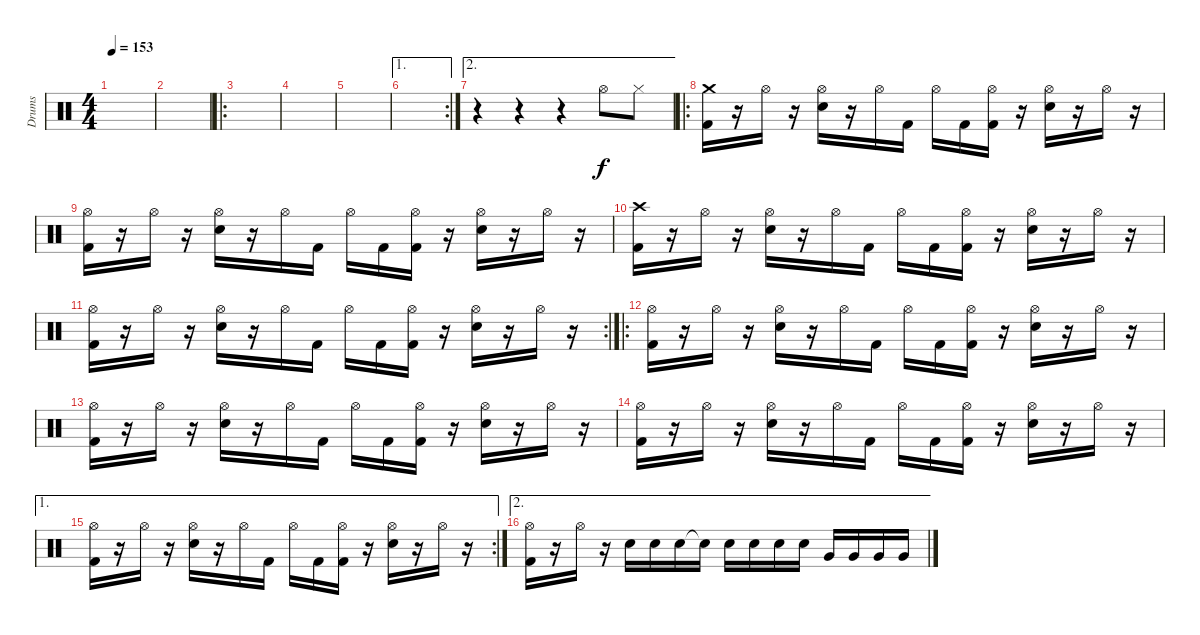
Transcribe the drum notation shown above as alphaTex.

\track ("Drums" "Drums") {instrument percussion}
\staff {score}
\articulation defaults
\ts (4 4)
\tempo 153
\clef neutral
\ks c
|
|
\ro
|
|
|
\ae 1
\rc 2
|
\ae 2
r.4 r.4 r.4 "Hi-Hat (open)".8 "Hi-Hat (closed)".8 |
\ro
("Crash medium (hit)" "Kick (hit) 2").16 r.16 "Hi-Hat (open)".16 r.16 ("Hi-Hat (open)" "Snare (hit) 2").16 r.16 "Hi-Hat (open)".16 "Kick (hit) 2".16 "Hi-Hat (open)".16 "Kick (hit) 2".16 ("Hi-Hat (open)" "Kick (hit) 2").16 r.16 ("Hi-Hat (open)" "Snare (hit) 2").16 r.16 "Hi-Hat (open)".16 r.16 |
("Hi-Hat (open)" "Kick (hit) 2").16 r.16 "Hi-Hat (open)".16 r.16 ("Hi-Hat (open)" "Snare (hit) 2").16 r.16 "Hi-Hat (open)".16 "Kick (hit) 2".16 "Hi-Hat (open)".16 "Kick (hit) 2".16 ("Hi-Hat (open)" "Kick (hit) 2").16 r.16 ("Hi-Hat (open)" "Snare (hit) 2").16 r.16 "Hi-Hat (open)".16 r.16 |
("Crash high (hit)" "Kick (hit) 2").16 r.16 "Hi-Hat (open)".16 r.16 ("Hi-Hat (open)" "Snare (hit) 2").16 r.16 "Hi-Hat (open)".16 "Kick (hit) 2".16 "Hi-Hat (open)".16 "Kick (hit) 2".16 ("Hi-Hat (open)" "Kick (hit) 2").16 r.16 ("Hi-Hat (open)" "Snare (hit) 2").16 r.16 "Hi-Hat (open)".16 r.16 |
\rc 2
("Hi-Hat (open)" "Kick (hit) 2").16 r.16 "Hi-Hat (open)".16 r.16 ("Hi-Hat (open)" "Snare (hit) 2").16 r.16 "Hi-Hat (open)".16 "Kick (hit) 2".16 "Hi-Hat (open)".16 "Kick (hit) 2".16 ("Hi-Hat (open)" "Kick (hit) 2").16 r.16 ("Hi-Hat (open)" "Snare (hit) 2").16 r.16 "Hi-Hat (open)".16 r.16 |
\ro
("Hi-Hat (open)" "Kick (hit) 2").16 r.16 "Hi-Hat (open)".16 r.16 ("Hi-Hat (open)" "Snare (hit) 2").16 r.16 "Hi-Hat (open)".16 "Kick (hit) 2".16 "Hi-Hat (open)".16 "Kick (hit) 2".16 ("Hi-Hat (open)" "Kick (hit) 2").16 r.16 ("Hi-Hat (open)" "Snare (hit) 2").16 r.16 "Hi-Hat (open)".16 r.16 |
("Hi-Hat (open)" "Kick (hit) 2").16 r.16 "Hi-Hat (open)".16 r.16 ("Hi-Hat (open)" "Snare (hit) 2").16 r.16 "Hi-Hat (open)".16 "Kick (hit) 2".16 "Hi-Hat (open)".16 "Kick (hit) 2".16 ("Hi-Hat (open)" "Kick (hit) 2").16 r.16 ("Hi-Hat (open)" "Snare (hit) 2").16 r.16 "Hi-Hat (open)".16 r.16 |
("Hi-Hat (open)" "Kick (hit) 2").16 r.16 "Hi-Hat (open)".16 r.16 ("Hi-Hat (open)" "Snare (hit) 2").16 r.16 "Hi-Hat (open)".16 "Kick (hit) 2".16 "Hi-Hat (open)".16 "Kick (hit) 2".16 ("Hi-Hat (open)" "Kick (hit) 2").16 r.16 ("Hi-Hat (open)" "Snare (hit) 2").16 r.16 "Hi-Hat (open)".16 r.16 |
\ae 1
\rc 2
("Hi-Hat (open)" "Kick (hit) 2").16 r.16 "Hi-Hat (open)".16 r.16 ("Hi-Hat (open)" "Snare (hit) 2").16 r.16 "Hi-Hat (open)".16 "Kick (hit) 2".16 "Hi-Hat (open)".16 "Kick (hit) 2".16 ("Hi-Hat (open)" "Kick (hit) 2").16 r.16 ("Hi-Hat (open)" "Snare (hit) 2").16 r.16 "Hi-Hat (open)".16 r.16 |
\ae 2
("Hi-Hat (open)" "Kick (hit) 2").16 r.16 "Hi-Hat (open)".16 r.16 "Snare (hit) 2".16 "Snare (hit) 2".16 "Snare (hit) 2".16 "Snare (hit)"{t}.16 "Snare (hit) 2".16 "Snare (hit) 2".16 "Snare (hit) 2".16 "Snare (hit) 2".16 "Very Low Tom (hit)".16 "Very Low Tom (hit)".16 "Very Low Tom (hit)".16 "Very Low Tom (hit)".16
